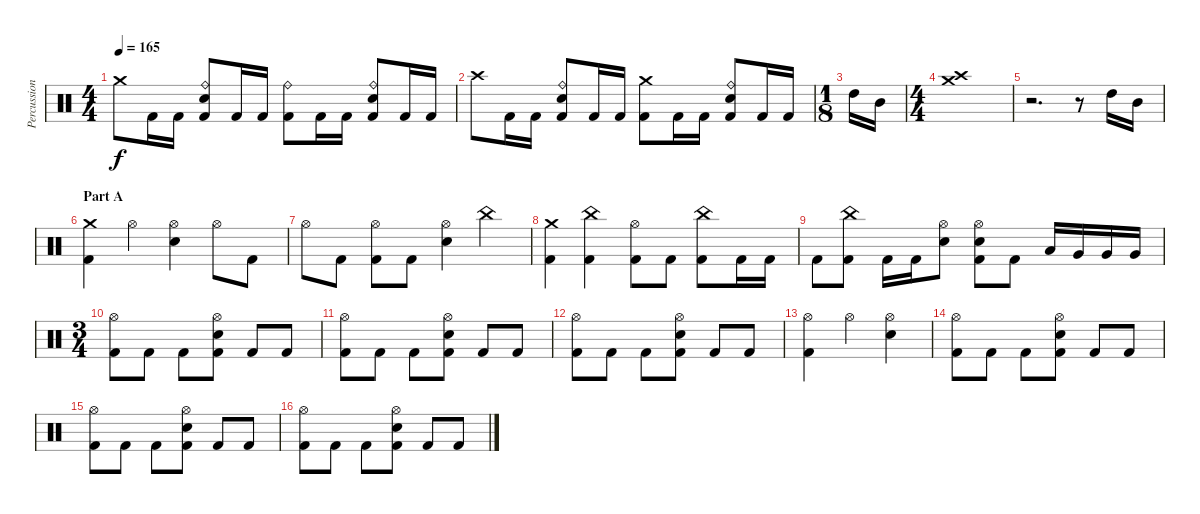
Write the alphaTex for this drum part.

\track ("Percussion" "Percussion") {instrument percussion}
\staff {score}
\articulation defaults
\ts (4 4)
\tempo 165
\clef neutral
\ks c "Crash medium (hit)".8{dy f} "Kick (hit) 2".16 "Kick (hit) 2".16
("Ride (bell)" "Snare (hit) 2" "Kick (hit) 2").8 "Kick (hit) 2".16 "Kick (hit) 2".16 ("Ride (bell)" "Kick (hit) 2").8 "Kick (hit) 2".16 "Kick (hit) 2".16 ("Ride (bell)" "Snare (hit) 2" "Kick (hit) 2").8 "Kick (hit) 2".16 "Kick (hit) 2".16 |
"Crash high (hit)".8 "Kick (hit) 2".16 "Kick (hit) 2".16 ("Ride (bell)" "Snare (hit) 2" "Kick (hit) 2").8 "Kick (hit) 2".16 "Kick (hit) 2".16 ("Crash medium (hit)" "Kick (hit) 2").8 "Kick (hit) 2".16 "Kick (hit) 2".16 ("Ride (bell)" "Snare (hit) 2" "Kick (hit) 2").8 "Kick (hit) 2".16 "Kick (hit) 2".16 |
\ts (1 8)
"High Tom (hit)".16 "Mid Tom (hit)".16 |
\ts (4 4)
("Crash medium (hit)" "Crash high (hit)").1 |
r.2{d} r.8 "High Tom (hit)".16 "Mid Tom (hit)".16 |
\section ("" "Part A")
("Crash medium (hit)" "Kick (hit) 2").4 "Hi-Hat (open)".4 ("Hi-Hat (open)" "Snare (hit) 2").4 "Hi-Hat (open)".8 "Kick (hit) 2".8 |
"Hi-Hat (open)".8 "Kick (hit) 2".8 ("Hi-Hat (open)" "Kick (hit) 2").8 "Kick (hit) 2".8 ("Hi-Hat (open)" "Snare (hit) 2").4 "China (hit)".4 |
("Crash medium (hit)" "Kick (hit) 2").4 ("China (hit)" "Kick (hit) 2").4 ("Hi-Hat (open)" "Kick (hit) 2").8 "Kick (hit) 2".8 ("China (hit)" "Kick (hit) 2").8 "Kick (hit) 2".16 "Kick (hit) 2".16 |
"Kick (hit) 2".8 ("China (hit)" "Kick (hit) 2").8 "Kick (hit) 2".16 "Kick (hit) 2".16 ("Hi-Hat (open)" "Snare (hit) 2").8 ("Hi-Hat (open)" "Snare (hit) 2" "Kick (hit) 2").8 "Kick (hit) 2".8 "Low Tom (hit)".16 "Very Low Tom (hit)".16 "Very Low Tom (hit)".16 "Very Low Tom (hit)".16 |
\ts (3 4)
("Hi-Hat (open)" "Kick (hit) 2").8 "Kick (hit) 2".8 "Kick (hit) 2".8 ("Hi-Hat (open)" "Snare (hit) 2" "Kick (hit) 2").8 "Kick (hit) 2".8 "Kick (hit) 2".8 |
("Hi-Hat (open)" "Kick (hit) 2").8 "Kick (hit) 2".8 "Kick (hit) 2".8 ("Hi-Hat (open)" "Snare (hit) 2" "Kick (hit) 2").8 "Kick (hit) 2".8 "Kick (hit) 2".8 |
("Hi-Hat (open)" "Kick (hit) 2").8 "Kick (hit) 2".8 "Kick (hit) 2".8 ("Hi-Hat (open)" "Snare (hit) 2" "Kick (hit) 2").8 "Kick (hit) 2".8 "Kick (hit) 2".8 |
("Hi-Hat (open)" "Kick (hit) 2").4 "Hi-Hat (open)".4 ("Hi-Hat (open)" "Snare (hit) 2").4 |
("Hi-Hat (open)" "Kick (hit) 2").8 "Kick (hit) 2".8 "Kick (hit) 2".8 ("Hi-Hat (open)" "Snare (hit) 2" "Kick (hit) 2").8 "Kick (hit) 2".8 "Kick (hit) 2".8 |
("Hi-Hat (open)" "Kick (hit) 2").8 "Kick (hit) 2".8 "Kick (hit) 2".8 ("Hi-Hat (open)" "Snare (hit) 2" "Kick (hit) 2").8 "Kick (hit) 2".8 "Kick (hit) 2".8 |
("Hi-Hat (open)" "Kick (hit) 2").8 "Kick (hit) 2".8 "Kick (hit) 2".8 ("Hi-Hat (open)" "Snare (hit) 2" "Kick (hit) 2").8 "Kick (hit) 2".8 "Kick (hit) 2".8
